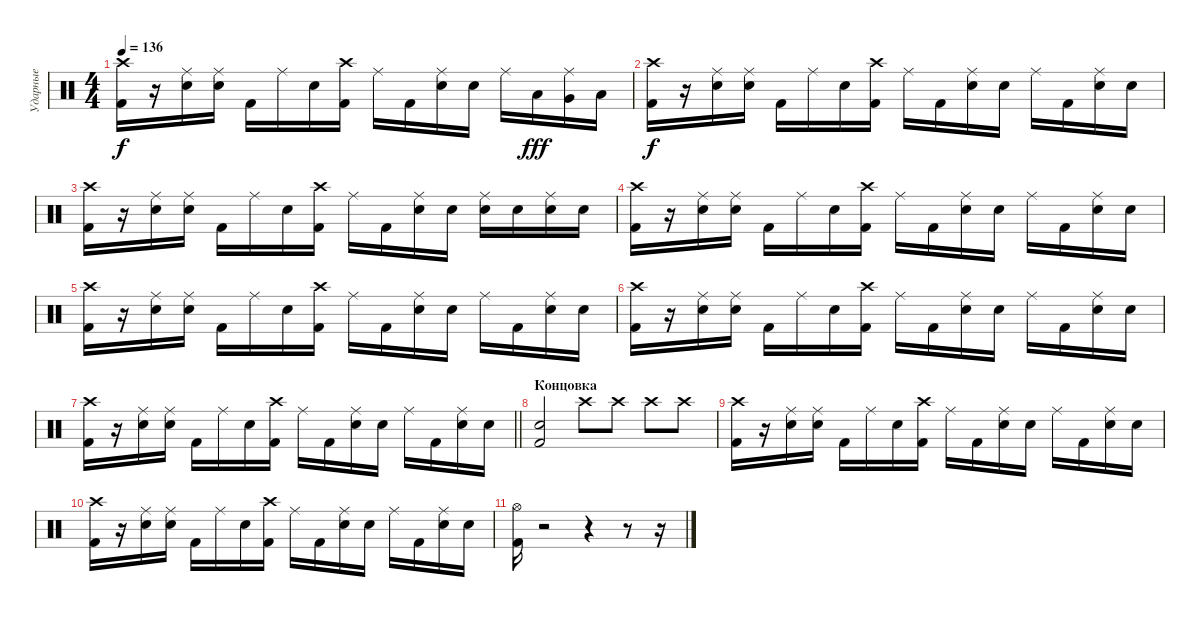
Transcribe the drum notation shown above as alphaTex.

\track ("Ударные" "Ударные") {instrument percussion}
\staff {score}
\articulation defaults
\ts (4 4)
\tempo 136
\clef neutral
\ks c
("Kick (hit) 2" "Crash high (hit)").16{dy f} r.16 ("Electric Snare (hit)" "Ride (middle)").16 ("Electric Snare (hit)" "Ride (middle)").16 "Kick (hit) 2".16 "Ride (middle)".16 "Electric Snare (hit)".16 ("Kick (hit) 2" "Crash high (hit)").16 "Ride (middle)".16 "Kick (hit) 2".16 ("Electric Snare (hit)" "Ride (middle)").16 "Electric Snare (hit)".16 "Ride (middle)".16 "Low Tom (hit)".16{dy fff} ("Very Low Tom (hit)" "Ride (middle)").16 "Low Floor Tom (hit)".16 |
("Kick (hit) 2" "Crash high (hit)").16{dy f} r.16 ("Electric Snare (hit)" "Ride (middle)").16 ("Electric Snare (hit)" "Ride (middle)").16 "Kick (hit) 2".16 "Ride (middle)".16 "Electric Snare (hit)".16 ("Kick (hit) 2" "Crash high (hit)").16 "Ride (middle)".16 "Kick (hit) 2".16 ("Electric Snare (hit)" "Ride (middle)").16 "Electric Snare (hit)".16 "Ride (middle)".16 "Kick (hit) 2".16 ("Electric Snare (hit)" "Ride (middle)").16 "Electric Snare (hit)".16 |
("Kick (hit) 2" "Crash high (hit)").16 r.16 ("Electric Snare (hit)" "Ride (middle)").16 ("Electric Snare (hit)" "Ride (middle)").16 "Kick (hit) 2".16 "Ride (middle)".16 "Electric Snare (hit)".16 ("Kick (hit) 2" "Crash high (hit)").16 "Ride (middle)".16 "Kick (hit) 2".16 ("Electric Snare (hit)" "Ride (middle)").16 "Electric Snare (hit)".16 ("Electric Snare (hit)" "Ride (middle)").16 "Electric Snare (hit)".16 ("Electric Snare (hit)" "Ride (middle)").16 "Electric Snare (hit)".16 |
("Kick (hit) 2" "Crash high (hit)").16 r.16 ("Electric Snare (hit)" "Ride (middle)").16 ("Electric Snare (hit)" "Ride (middle)").16 "Kick (hit) 2".16 "Ride (middle)".16 "Electric Snare (hit)".16 ("Kick (hit) 2" "Crash high (hit)").16 "Ride (middle)".16 "Kick (hit) 2".16 ("Electric Snare (hit)" "Ride (middle)").16 "Electric Snare (hit)".16 "Ride (middle)".16 "Kick (hit) 2".16 ("Electric Snare (hit)" "Ride (middle)").16 "Electric Snare (hit)".16 |
("Kick (hit) 2" "Crash high (hit)").16 r.16 ("Electric Snare (hit)" "Ride (middle)").16 ("Electric Snare (hit)" "Ride (middle)").16 "Kick (hit) 2".16 "Ride (middle)".16 "Electric Snare (hit)".16 ("Kick (hit) 2" "Crash high (hit)").16 "Ride (middle)".16 "Kick (hit) 2".16 ("Electric Snare (hit)" "Ride (middle)").16 "Electric Snare (hit)".16 "Ride (middle)".16 "Kick (hit) 2".16 ("Electric Snare (hit)" "Ride (middle)").16 "Electric Snare (hit)".16 |
("Kick (hit) 2" "Crash high (hit)").16 r.16 ("Electric Snare (hit)" "Ride (middle)").16 ("Electric Snare (hit)" "Ride (middle)").16 "Kick (hit) 2".16 "Ride (middle)".16 "Electric Snare (hit)".16 ("Kick (hit) 2" "Crash high (hit)").16 "Ride (middle)".16 "Kick (hit) 2".16 ("Electric Snare (hit)" "Ride (middle)").16 "Electric Snare (hit)".16 "Ride (middle)".16 "Kick (hit) 2".16 ("Electric Snare (hit)" "Ride (middle)").16 "Electric Snare (hit)".16 |
\barLineRight lightlight
("Kick (hit) 2" "Crash high (hit)").16 r.16 ("Electric Snare (hit)" "Ride (middle)").16 ("Electric Snare (hit)" "Ride (middle)").16 "Kick (hit) 2".16 "Ride (middle)".16 "Electric Snare (hit)".16 ("Kick (hit) 2" "Crash high (hit)").16 "Ride (middle)".16 "Kick (hit) 2".16 ("Electric Snare (hit)" "Ride (middle)").16 "Electric Snare (hit)".16 "Ride (middle)".16 "Kick (hit) 2".16 ("Electric Snare (hit)" "Ride (middle)").16 "Electric Snare (hit)".16 |
\section ("" "Концовка")
("Electric Snare (hit)" "Kick (hit) 2").2 "Crash high (hit)".8 "Crash high (hit)".8 "Crash high (hit)".8 "Crash high (hit)".8 |
("Kick (hit) 2" "Crash high (hit)").16 r.16 ("Electric Snare (hit)" "Ride (middle)").16 ("Electric Snare (hit)" "Ride (middle)").16 "Kick (hit) 2".16 "Ride (middle)".16 "Electric Snare (hit)".16 ("Kick (hit) 2" "Crash high (hit)").16 "Ride (middle)".16 "Kick (hit) 2".16 ("Electric Snare (hit)" "Ride (middle)").16 "Electric Snare (hit)".16 "Ride (middle)".16 "Kick (hit) 2".16 ("Electric Snare (hit)" "Ride (middle)").16 "Electric Snare (hit)".16 |
("Kick (hit) 2" "Crash high (hit)").16 r.16 ("Electric Snare (hit)" "Ride (middle)").16 ("Electric Snare (hit)" "Ride (middle)").16 "Kick (hit) 2".16 "Ride (middle)".16 "Electric Snare (hit)".16 ("Kick (hit) 2" "Crash high (hit)").16 "Ride (middle)".16 "Kick (hit) 2".16 ("Electric Snare (hit)" "Ride (middle)").16 "Electric Snare (hit)".16 "Ride (middle)".16 "Kick (hit) 2".16 ("Electric Snare (hit)" "Ride (middle)").16 "Electric Snare (hit)".16 |
("Kick (hit) 2" "Hi-Hat (open)").16 r.2 r.4 r.8 r.16
